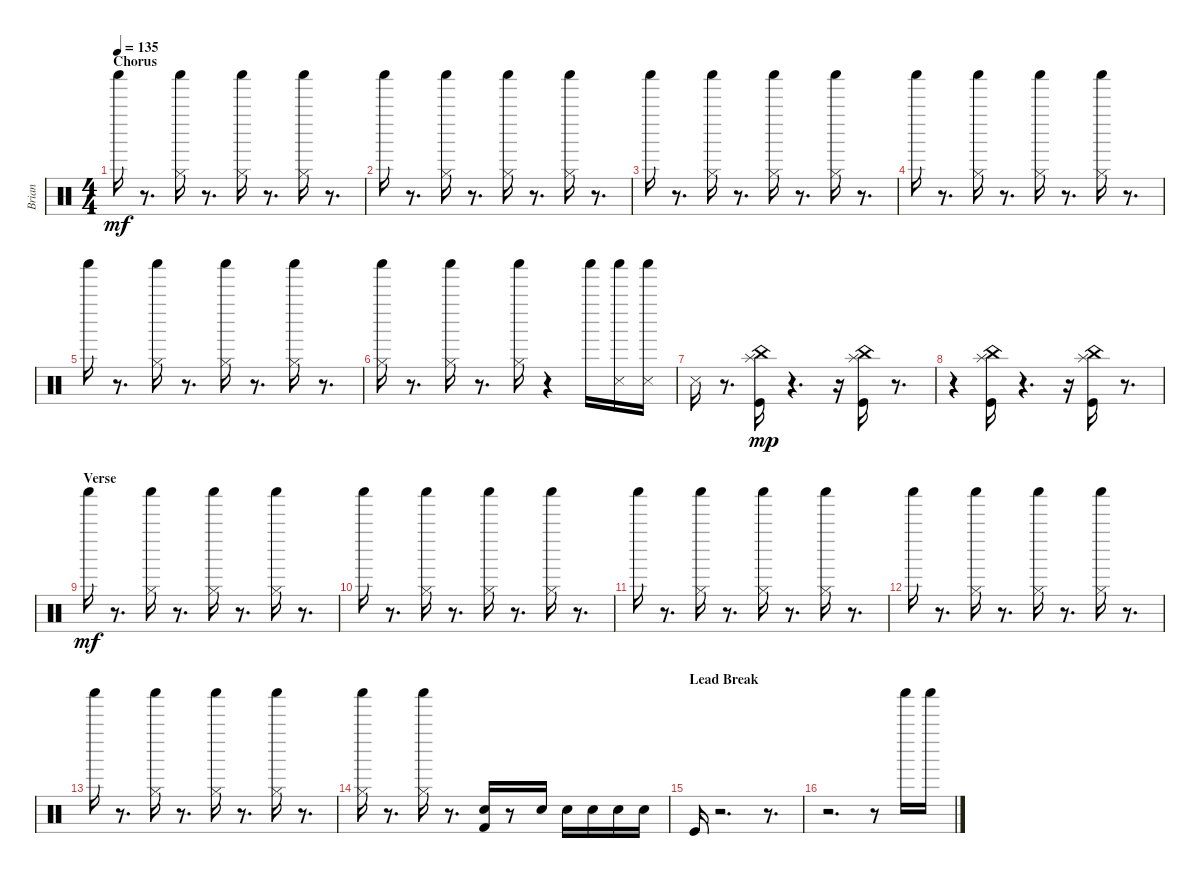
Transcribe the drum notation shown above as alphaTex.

\track ("Brian" "Brian") {instrument percussion}
\staff {score}
\articulation defaults
\ts (4 4)
\section ("" "Chorus")
\tempo 135
\clef neutral
\ks c "Shaker (hit)".16{dy mf}
r.8{d} ("Shaker (hit)" "Hi-Hat (closed)").16 r.8{d} ("Shaker (hit)" "Hi-Hat (closed)").16 r.8{d} ("Shaker (hit)" "Hi-Hat (closed)").16 r.8{d} |
"Shaker (hit)".16 r.8{d} ("Shaker (hit)" "Hi-Hat (closed)").16 r.8{d} ("Shaker (hit)" "Hi-Hat (closed)").16 r.8{d} ("Shaker (hit)" "Hi-Hat (closed)").16 r.8{d} |
"Shaker (hit)".16 r.8{d} ("Shaker (hit)" "Hi-Hat (closed)").16 r.8{d} ("Shaker (hit)" "Hi-Hat (closed)").16 r.8{d} ("Shaker (hit)" "Hi-Hat (closed)").16 r.8{d} |
"Shaker (hit)".16 r.8{d} ("Shaker (hit)" "Hi-Hat (closed)").16 r.8{d} ("Shaker (hit)" "Hi-Hat (closed)").16 r.8{d} ("Shaker (hit)" "Hi-Hat (closed)").16 r.8{d} |
"Shaker (hit)".16 r.8{d} ("Shaker (hit)" "Hi-Hat (closed)").16 r.8{d} ("Shaker (hit)" "Hi-Hat (closed)").16 r.8{d} ("Shaker (hit)" "Hi-Hat (closed)").16 r.8{d} |
("Shaker (hit)" "Hi-Hat (closed)").16 r.8{d} ("Shaker (hit)" "Hi-Hat (closed)").16 r.8{d} ("Shaker (hit)" "Hi-Hat (closed)").16 r.4 "Shaker (hit)".16 ("Snare (side stick) 3" "Shaker (hit)").16 ("Snare (side stick) 3" "Shaker (hit)").16 |
"Snare (side stick) 3".16 r.8{d} ("Splash (hit)" "Kick (hit)" "China (hit)").16{dy mp} r.4{d} r.16 ("Splash (hit)" "Kick (hit)" "China (hit)").16 r.8{d} |
r.4 ("Splash (hit)" "Kick (hit)" "China (hit)").16 r.4{d} r.16 ("Splash (hit)" "Kick (hit)" "China (hit)").16 r.8{d} |
\section ("" "Verse")
"Shaker (hit)".16{dy mf} r.8{d} ("Shaker (hit)" "Hi-Hat (closed)").16 r.8{d} ("Shaker (hit)" "Hi-Hat (closed)").16 r.8{d} ("Shaker (hit)" "Hi-Hat (closed)").16 r.8{d} |
"Shaker (hit)".16 r.8{d} ("Shaker (hit)" "Hi-Hat (closed)").16 r.8{d} ("Shaker (hit)" "Hi-Hat (closed)").16 r.8{d} ("Shaker (hit)" "Hi-Hat (closed)").16 r.8{d} |
"Shaker (hit)".16 r.8{d} ("Shaker (hit)" "Hi-Hat (closed)").16 r.8{d} ("Shaker (hit)" "Hi-Hat (closed)").16 r.8{d} ("Shaker (hit)" "Hi-Hat (closed)").16 r.8{d} |
"Shaker (hit)".16 r.8{d} ("Shaker (hit)" "Hi-Hat (closed)").16 r.8{d} ("Shaker (hit)" "Hi-Hat (closed)").16 r.8{d} ("Shaker (hit)" "Hi-Hat (closed)").16 r.8{d} |
"Shaker (hit)".16 r.8{d} ("Shaker (hit)" "Hi-Hat (closed)").16 r.8{d} ("Shaker (hit)" "Hi-Hat (closed)").16 r.8{d} ("Shaker (hit)" "Hi-Hat (closed)").16 r.8{d} |
("Shaker (hit)" "Hi-Hat (closed)").16 r.8{d} ("Shaker (hit)" "Hi-Hat (closed)").16 r.8{d} ("Snare (hit) 2" "Kick (hit) 2").16 r.8 "Electric Snare (hit)".16 "Electric Snare (hit)".16 "Electric Snare (hit)".16 "Electric Snare (hit)".16 "Electric Snare (hit)".16 |
\section ("" "Lead Break")
"Kick (hit)".16 r.2{d} r.8{d} |
r.2{d} r.8 "Shaker (hit)".16 "Shaker (hit)".16
